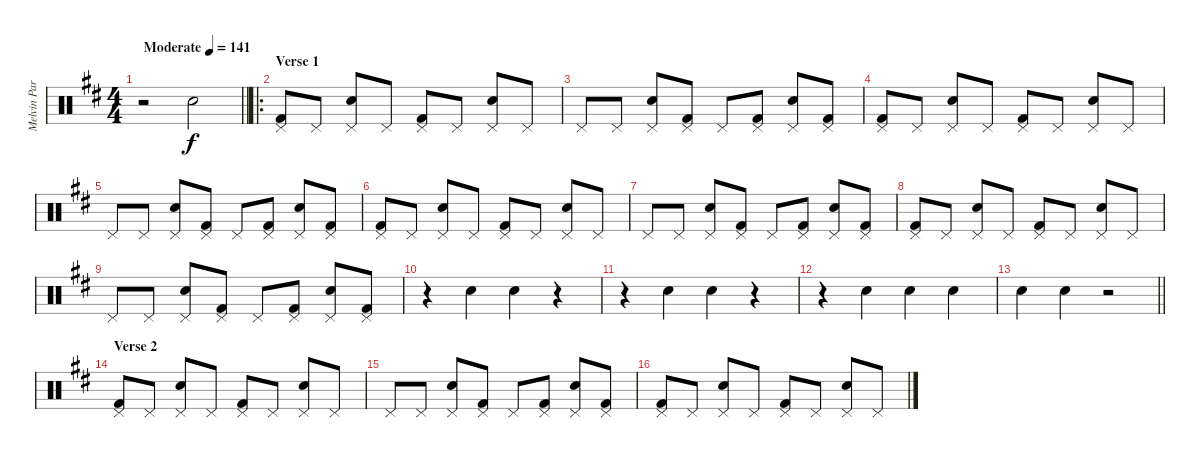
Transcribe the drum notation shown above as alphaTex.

\track ("Melvin Parker - Drums " "Melvin Par") {instrument percussion}
\staff {score}
\articulation defaults
\ts (4 4)
\tempo (141 "Moderate")
\clef neutral
\barLineRight lightlight
\ks d
r.2{dy f} "Electric Snare (hit)".2 |
\ro
\section ("" "Verse 1")
("Pedal Hi-Hat (hit)" "Kick (hit) 2").8 "Pedal Hi-Hat (hit)".8 ("Pedal Hi-Hat (hit)" "Electric Snare (hit)").8 "Pedal Hi-Hat (hit)".8 ("Pedal Hi-Hat (hit)" "Kick (hit) 2").8 "Pedal Hi-Hat (hit)".8 ("Pedal Hi-Hat (hit)" "Electric Snare (hit)").8 "Pedal Hi-Hat (hit)".8 |
"Pedal Hi-Hat (hit)".8 "Pedal Hi-Hat (hit)".8 ("Pedal Hi-Hat (hit)" "Electric Snare (hit)").8 ("Pedal Hi-Hat (hit)" "Kick (hit) 2").8 "Pedal Hi-Hat (hit)".8 ("Pedal Hi-Hat (hit)" "Kick (hit) 2").8 ("Pedal Hi-Hat (hit)" "Electric Snare (hit)").8 ("Pedal Hi-Hat (hit)" "Kick (hit) 2").8 |
("Pedal Hi-Hat (hit)" "Kick (hit) 2").8 "Pedal Hi-Hat (hit)".8 ("Pedal Hi-Hat (hit)" "Electric Snare (hit)").8 "Pedal Hi-Hat (hit)".8 ("Pedal Hi-Hat (hit)" "Kick (hit) 2").8 "Pedal Hi-Hat (hit)".8 ("Pedal Hi-Hat (hit)" "Electric Snare (hit)").8 "Pedal Hi-Hat (hit)".8 |
"Pedal Hi-Hat (hit)".8 "Pedal Hi-Hat (hit)".8 ("Pedal Hi-Hat (hit)" "Electric Snare (hit)").8 ("Pedal Hi-Hat (hit)" "Kick (hit) 2").8 "Pedal Hi-Hat (hit)".8 ("Pedal Hi-Hat (hit)" "Kick (hit) 2").8 ("Pedal Hi-Hat (hit)" "Electric Snare (hit)").8 ("Pedal Hi-Hat (hit)" "Kick (hit) 2").8 |
("Pedal Hi-Hat (hit)" "Kick (hit) 2").8 "Pedal Hi-Hat (hit)".8 ("Pedal Hi-Hat (hit)" "Electric Snare (hit)").8 "Pedal Hi-Hat (hit)".8 ("Pedal Hi-Hat (hit)" "Kick (hit) 2").8 "Pedal Hi-Hat (hit)".8 ("Pedal Hi-Hat (hit)" "Electric Snare (hit)").8 "Pedal Hi-Hat (hit)".8 |
"Pedal Hi-Hat (hit)".8 "Pedal Hi-Hat (hit)".8 ("Pedal Hi-Hat (hit)" "Electric Snare (hit)").8 ("Pedal Hi-Hat (hit)" "Kick (hit) 2").8 "Pedal Hi-Hat (hit)".8 ("Pedal Hi-Hat (hit)" "Kick (hit) 2").8 ("Pedal Hi-Hat (hit)" "Electric Snare (hit)").8 ("Pedal Hi-Hat (hit)" "Kick (hit) 2").8 |
("Pedal Hi-Hat (hit)" "Kick (hit) 2").8 "Pedal Hi-Hat (hit)".8 ("Pedal Hi-Hat (hit)" "Electric Snare (hit)").8 "Pedal Hi-Hat (hit)".8 ("Pedal Hi-Hat (hit)" "Kick (hit) 2").8 "Pedal Hi-Hat (hit)".8 ("Pedal Hi-Hat (hit)" "Electric Snare (hit)").8 "Pedal Hi-Hat (hit)".8 |
"Pedal Hi-Hat (hit)".8 "Pedal Hi-Hat (hit)".8 ("Pedal Hi-Hat (hit)" "Electric Snare (hit)").8 ("Pedal Hi-Hat (hit)" "Kick (hit) 2").8 "Pedal Hi-Hat (hit)".8 ("Pedal Hi-Hat (hit)" "Kick (hit) 2").8 ("Pedal Hi-Hat (hit)" "Electric Snare (hit)").8 ("Pedal Hi-Hat (hit)" "Kick (hit) 2").8 |
r.4 "Electric Snare (hit)".4 "Electric Snare (hit)".4 r.4 |
r.4 "Electric Snare (hit)".4 "Electric Snare (hit)".4 r.4 |
r.4 "Electric Snare (hit)".4 "Electric Snare (hit)".4 "Electric Snare (hit)".4 |
\barLineRight lightlight "Electric Snare (hit)".4 "Electric Snare (hit)".4
r.2 |
\section ("" "Verse 2")
("Pedal Hi-Hat (hit)" "Kick (hit) 2").8 "Pedal Hi-Hat (hit)".8 ("Pedal Hi-Hat (hit)" "Electric Snare (hit)").8 "Pedal Hi-Hat (hit)".8 ("Pedal Hi-Hat (hit)" "Kick (hit) 2").8 "Pedal Hi-Hat (hit)".8 ("Pedal Hi-Hat (hit)" "Electric Snare (hit)").8 "Pedal Hi-Hat (hit)".8 |
"Pedal Hi-Hat (hit)".8 "Pedal Hi-Hat (hit)".8 ("Pedal Hi-Hat (hit)" "Electric Snare (hit)").8 ("Pedal Hi-Hat (hit)" "Kick (hit) 2").8 "Pedal Hi-Hat (hit)".8 ("Pedal Hi-Hat (hit)" "Kick (hit) 2").8 ("Pedal Hi-Hat (hit)" "Electric Snare (hit)").8 ("Pedal Hi-Hat (hit)" "Kick (hit) 2").8 |
("Pedal Hi-Hat (hit)" "Kick (hit) 2").8 "Pedal Hi-Hat (hit)".8 ("Pedal Hi-Hat (hit)" "Electric Snare (hit)").8 "Pedal Hi-Hat (hit)".8 ("Pedal Hi-Hat (hit)" "Kick (hit) 2").8 "Pedal Hi-Hat (hit)".8 ("Pedal Hi-Hat (hit)" "Electric Snare (hit)").8 "Pedal Hi-Hat (hit)".8
